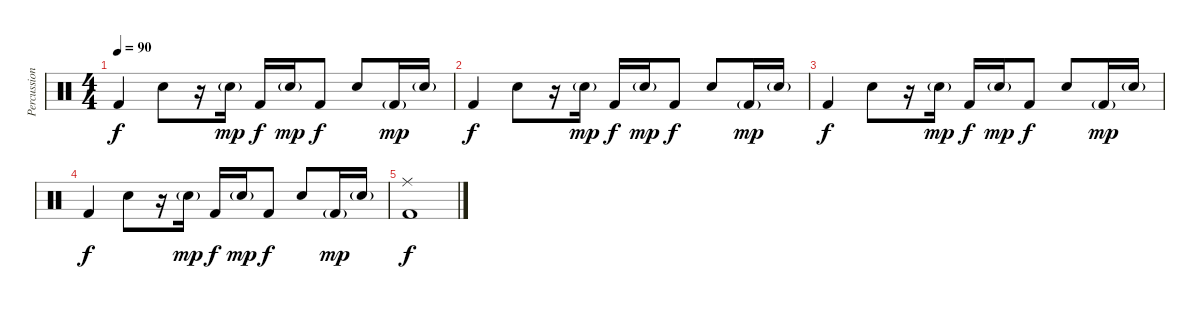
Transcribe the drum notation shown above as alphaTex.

\track ("Percussion" "Percussion") {instrument percussion}
\staff {score}
\articulation defaults
\ts (4 4)
\tempo 90
\clef neutral
\ks c "Kick (hit) 2".4{dy f} "Snare (hit) 2".8
r.16 "Snare (hit) 2"{g}.16{dy mp} "Kick (hit) 2".16{dy f} "Snare (hit) 2"{g}.16{dy mp} "Kick (hit) 2".8{dy f} "Snare (hit) 2".8 "Kick (hit) 2"{g}.16{dy mp} "Snare (hit) 2"{g}.16 |
"Kick (hit) 2".4{dy f} "Snare (hit) 2".8 r.16 "Snare (hit) 2"{g}.16{dy mp} "Kick (hit) 2".16{dy f} "Snare (hit) 2"{g}.16{dy mp} "Kick (hit) 2".8{dy f} "Snare (hit) 2".8 "Kick (hit) 2"{g}.16{dy mp} "Snare (hit) 2"{g}.16 |
"Kick (hit) 2".4{dy f} "Snare (hit) 2".8 r.16 "Snare (hit) 2"{g}.16{dy mp} "Kick (hit) 2".16{dy f} "Snare (hit) 2"{g}.16{dy mp} "Kick (hit) 2".8{dy f} "Snare (hit) 2".8 "Kick (hit) 2"{g}.16{dy mp} "Snare (hit) 2"{g}.16 |
"Kick (hit) 2".4{dy f} "Snare (hit) 2".8 r.16 "Snare (hit) 2"{g}.16{dy mp} "Kick (hit) 2".16{dy f} "Snare (hit) 2"{g}.16{dy mp} "Kick (hit) 2".8{dy f} "Snare (hit) 2".8 "Kick (hit) 2"{g}.16{dy mp} "Snare (hit) 2"{g}.16 |
("Ride (middle)" "Kick (hit) 2").1{dy f}
